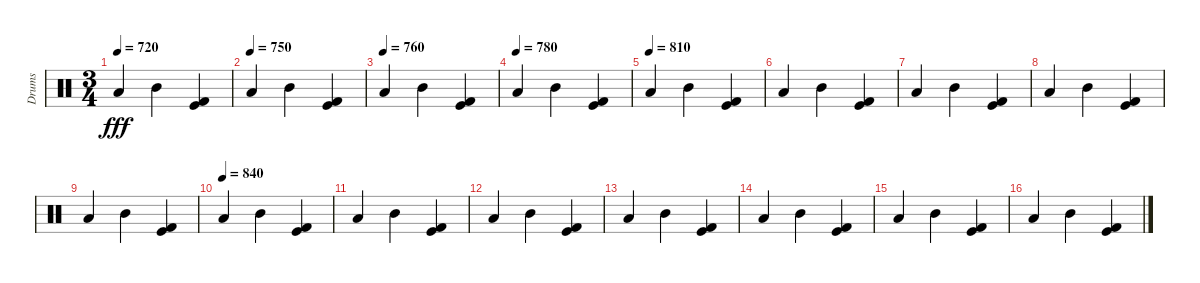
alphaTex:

\track ("Drums" "Drums") {instrument percussion}
\staff {score}
\articulation defaults
\ts (3 4)
\tempo 720
\clef neutral
\ks c "Low Tom (hit)".4{dy fff} "Mid Tom (hit)".4
("Kick (hit)" "Kick (hit) 2").4 |
\tempo (750)
"Low Tom (hit)".4 "Mid Tom (hit)".4 ("Kick (hit)" "Kick (hit) 2").4 |
\tempo (760)
"Low Tom (hit)".4 "Mid Tom (hit)".4 ("Kick (hit)" "Kick (hit) 2").4 |
\tempo (780)
"Low Tom (hit)".4 "Mid Tom (hit)".4 ("Kick (hit)" "Kick (hit) 2").4 |
\tempo (810)
"Low Tom (hit)".4 "Mid Tom (hit)".4 ("Kick (hit)" "Kick (hit) 2").4 |
"Low Tom (hit)".4 "Mid Tom (hit)".4 ("Kick (hit)" "Kick (hit) 2").4 |
"Low Tom (hit)".4 "Mid Tom (hit)".4 ("Kick (hit)" "Kick (hit) 2").4 |
"Low Tom (hit)".4 "Mid Tom (hit)".4 ("Kick (hit)" "Kick (hit) 2").4 |
"Low Tom (hit)".4 "Mid Tom (hit)".4 ("Kick (hit)" "Kick (hit) 2").4 |
\tempo (840)
"Low Tom (hit)".4 "Mid Tom (hit)".4 ("Kick (hit)" "Kick (hit) 2").4 |
"Low Tom (hit)".4 "Mid Tom (hit)".4 ("Kick (hit)" "Kick (hit) 2").4 |
"Low Tom (hit)".4 "Mid Tom (hit)".4 ("Kick (hit)" "Kick (hit) 2").4 |
"Low Tom (hit)".4 "Mid Tom (hit)".4 ("Kick (hit)" "Kick (hit) 2").4 |
"Low Tom (hit)".4 "Mid Tom (hit)".4 ("Kick (hit)" "Kick (hit) 2").4 |
"Low Tom (hit)".4 "Mid Tom (hit)".4 ("Kick (hit)" "Kick (hit) 2").4 |
"Low Tom (hit)".4 "Mid Tom (hit)".4 ("Kick (hit)" "Kick (hit) 2").4
